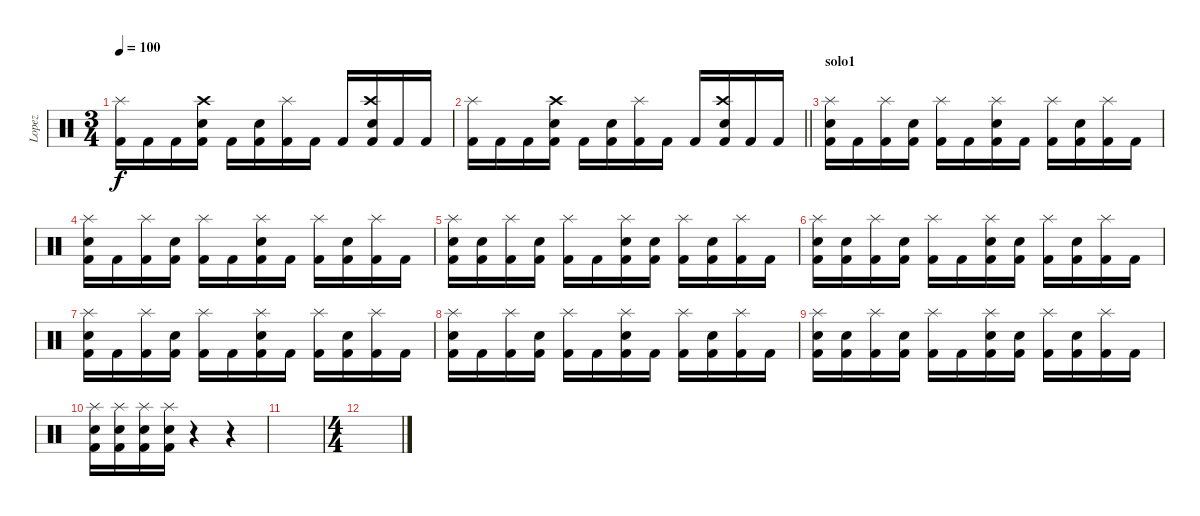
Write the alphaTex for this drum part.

\track ("Lopez" "Lopez") {instrument percussion}
\staff {score}
\articulation defaults
\ts (3 4)
\tempo 100
\clef neutral
\ks c
("Splash (hit)" "Kick (hit) 2").16{dy f} "Kick (hit) 2".16 "Kick (hit) 2".16 ("Crash high (hit)" "Snare (hit) 2" "Kick (hit) 2").16 "Kick (hit) 2".16 ("Snare (hit) 2" "Kick (hit) 2").16 ("Splash (hit)" "Kick (hit) 2").16 "Kick (hit) 2".16 "Kick (hit) 2".16 ("Crash high (hit)" "Snare (hit) 2" "Kick (hit) 2").16 "Kick (hit) 2".16 "Kick (hit) 2".16 |
\barLineRight lightlight
("Splash (hit)" "Kick (hit) 2").16 "Kick (hit) 2".16 "Kick (hit) 2".16 ("Crash high (hit)" "Snare (hit) 2" "Kick (hit) 2").16 "Kick (hit) 2".16 ("Snare (hit) 2" "Kick (hit) 2").16 ("Splash (hit)" "Kick (hit) 2").16 "Kick (hit) 2".16 "Kick (hit) 2".16 ("Crash high (hit)" "Snare (hit) 2" "Kick (hit) 2").16 "Kick (hit) 2".16 "Kick (hit) 2".16 |
\section ("" "solo1")
("Splash (hit)" "Snare (hit) 2" "Kick (hit) 2").16 "Kick (hit) 2".16 ("Splash (hit)" "Kick (hit) 2").16 ("Snare (hit) 2" "Kick (hit) 2").16 ("Splash (hit)" "Kick (hit) 2").16 "Kick (hit) 2".16 ("Splash (hit)" "Snare (hit) 2" "Kick (hit) 2").16 "Kick (hit) 2".16 ("Splash (hit)" "Kick (hit) 2").16 ("Snare (hit) 2" "Kick (hit) 2").16 ("Splash (hit)" "Kick (hit) 2").16 "Kick (hit) 2".16 |
("Splash (hit)" "Snare (hit) 2" "Kick (hit) 2").16 "Kick (hit) 2".16 ("Splash (hit)" "Kick (hit) 2").16 ("Snare (hit) 2" "Kick (hit) 2").16 ("Splash (hit)" "Kick (hit) 2").16 "Kick (hit) 2".16 ("Splash (hit)" "Snare (hit) 2" "Kick (hit) 2").16 "Kick (hit) 2".16 ("Splash (hit)" "Kick (hit) 2").16 ("Snare (hit) 2" "Kick (hit) 2").16 ("Splash (hit)" "Kick (hit) 2").16 "Kick (hit) 2".16 |
("Splash (hit)" "Snare (hit) 2" "Kick (hit) 2").16 ("Snare (hit) 2" "Kick (hit) 2").16 ("Splash (hit)" "Kick (hit) 2").16 ("Snare (hit) 2" "Kick (hit) 2").16 ("Splash (hit)" "Kick (hit) 2").16 "Kick (hit) 2".16 ("Splash (hit)" "Snare (hit) 2" "Kick (hit) 2").16 ("Snare (hit) 2" "Kick (hit) 2").16 ("Splash (hit)" "Kick (hit) 2").16 ("Snare (hit) 2" "Kick (hit) 2").16 ("Splash (hit)" "Kick (hit) 2").16 "Kick (hit) 2".16 |
("Splash (hit)" "Snare (hit) 2" "Kick (hit) 2").16 ("Snare (hit) 2" "Kick (hit) 2").16 ("Splash (hit)" "Kick (hit) 2").16 ("Snare (hit) 2" "Kick (hit) 2").16 ("Splash (hit)" "Kick (hit) 2").16 "Kick (hit) 2".16 ("Splash (hit)" "Snare (hit) 2" "Kick (hit) 2").16 ("Snare (hit) 2" "Kick (hit) 2").16 ("Splash (hit)" "Kick (hit) 2").16 ("Snare (hit) 2" "Kick (hit) 2").16 ("Splash (hit)" "Kick (hit) 2").16 "Kick (hit) 2".16 |
("Splash (hit)" "Snare (hit) 2" "Kick (hit) 2").16 "Kick (hit) 2".16 ("Splash (hit)" "Kick (hit) 2").16 ("Snare (hit) 2" "Kick (hit) 2").16 ("Splash (hit)" "Kick (hit) 2").16 "Kick (hit) 2".16 ("Splash (hit)" "Snare (hit) 2" "Kick (hit) 2").16 "Kick (hit) 2".16 ("Splash (hit)" "Kick (hit) 2").16 ("Snare (hit) 2" "Kick (hit) 2").16 ("Splash (hit)" "Kick (hit) 2").16 "Kick (hit) 2".16 |
("Splash (hit)" "Snare (hit) 2" "Kick (hit) 2").16 "Kick (hit) 2".16 ("Splash (hit)" "Kick (hit) 2").16 ("Snare (hit) 2" "Kick (hit) 2").16 ("Splash (hit)" "Kick (hit) 2").16 "Kick (hit) 2".16 ("Splash (hit)" "Snare (hit) 2" "Kick (hit) 2").16 "Kick (hit) 2".16 ("Splash (hit)" "Kick (hit) 2").16 ("Snare (hit) 2" "Kick (hit) 2").16 ("Splash (hit)" "Kick (hit) 2").16 "Kick (hit) 2".16 |
("Splash (hit)" "Snare (hit) 2" "Kick (hit) 2").16 ("Snare (hit) 2" "Kick (hit) 2").16 ("Splash (hit)" "Kick (hit) 2").16 ("Snare (hit) 2" "Kick (hit) 2").16 ("Splash (hit)" "Kick (hit) 2").16 "Kick (hit) 2".16 ("Splash (hit)" "Snare (hit) 2" "Kick (hit) 2").16 ("Snare (hit) 2" "Kick (hit) 2").16 ("Splash (hit)" "Kick (hit) 2").16 ("Snare (hit) 2" "Kick (hit) 2").16 ("Splash (hit)" "Kick (hit) 2").16 "Kick (hit) 2".16 |
("Splash (hit)" "Snare (hit) 2" "Kick (hit) 2").16 ("Splash (hit)" "Snare (hit) 2" "Kick (hit) 2").16 ("Splash (hit)" "Snare (hit) 2" "Kick (hit) 2").16 ("Splash (hit)" "Snare (hit) 2" "Kick (hit) 2").16 r.4 r.4 |
|
\ts (4 4)
